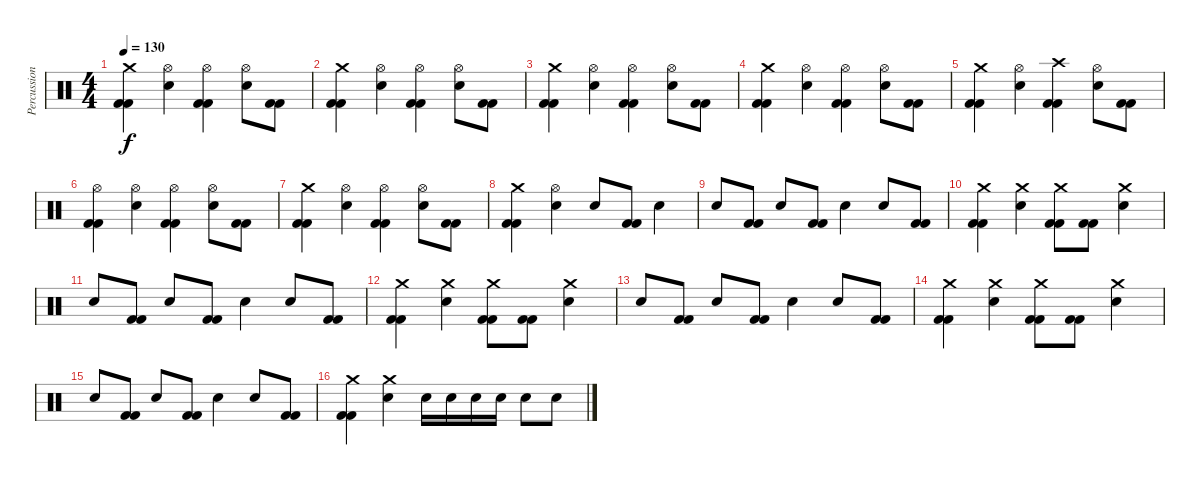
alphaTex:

\track ("Percussion" "Percussion") {instrument percussion}
\staff {score}
\articulation defaults
\ts (4 4)
\tempo 130
\clef neutral
\ks c
("Crash medium (hit)" "Kick (hit) 2" "Kick (hit) 2").4{dy f} ("Hi-Hat (open)" "Snare (hit) 2").4 ("Hi-Hat (open)" "Kick (hit) 2" "Kick (hit) 2").4 ("Hi-Hat (open)" "Snare (hit) 2").8 ("Kick (hit) 2" "Kick (hit) 2").8 |
("Crash medium (hit)" "Kick (hit) 2" "Kick (hit) 2").4 ("Hi-Hat (open)" "Snare (hit) 2").4 ("Hi-Hat (open)" "Kick (hit) 2" "Kick (hit) 2").4 ("Hi-Hat (open)" "Snare (hit) 2").8 ("Kick (hit) 2" "Kick (hit) 2").8 |
("Crash medium (hit)" "Kick (hit) 2" "Kick (hit) 2").4 ("Hi-Hat (open)" "Snare (hit) 2").4 ("Hi-Hat (open)" "Kick (hit) 2" "Kick (hit) 2").4 ("Hi-Hat (open)" "Snare (hit) 2").8 ("Kick (hit) 2" "Kick (hit) 2").8 |
("Crash medium (hit)" "Kick (hit) 2" "Kick (hit) 2").4 ("Hi-Hat (open)" "Snare (hit) 2").4 ("Hi-Hat (open)" "Kick (hit) 2" "Kick (hit) 2").4 ("Hi-Hat (open)" "Snare (hit) 2").8 ("Kick (hit) 2" "Kick (hit) 2").8 |
("Crash medium (hit)" "Kick (hit) 2" "Kick (hit) 2").4 ("Hi-Hat (open)" "Snare (hit) 2").4 ("Crash high (hit)" "Kick (hit) 2" "Kick (hit) 2").4 ("Hi-Hat (open)" "Snare (hit) 2").8 ("Kick (hit) 2" "Kick (hit) 2").8 |
("Hi-Hat (open)" "Kick (hit) 2" "Kick (hit) 2").4 ("Hi-Hat (open)" "Snare (hit) 2").4 ("Hi-Hat (open)" "Kick (hit) 2" "Kick (hit) 2").4 ("Hi-Hat (open)" "Snare (hit) 2").8 ("Kick (hit) 2" "Kick (hit) 2").8 |
("Crash medium (hit)" "Kick (hit) 2" "Kick (hit) 2").4 ("Hi-Hat (open)" "Snare (hit) 2").4 ("Hi-Hat (open)" "Kick (hit) 2" "Kick (hit) 2").4 ("Hi-Hat (open)" "Snare (hit) 2").8 ("Kick (hit) 2" "Kick (hit) 2").8 |
("Crash medium (hit)" "Kick (hit) 2" "Kick (hit) 2").4 ("Hi-Hat (open)" "Snare (hit) 2").4 "Snare (hit) 2".8 ("Kick (hit) 2" "Kick (hit) 2").8 "Snare (hit) 2".4 |
"Snare (hit) 2".8 ("Kick (hit) 2" "Kick (hit) 2").8 "Snare (hit) 2".8 ("Kick (hit) 2" "Kick (hit) 2").8 "Snare (hit) 2".4 "Snare (hit) 2".8 ("Kick (hit) 2" "Kick (hit) 2").8 |
("Crash medium (hit)" "Kick (hit) 2" "Kick (hit) 2").4 ("Crash medium (hit)" "Snare (hit) 2").4 ("Crash medium (hit)" "Kick (hit) 2" "Kick (hit) 2").8 ("Kick (hit) 2" "Kick (hit) 2").8 ("Crash medium (hit)" "Snare (hit) 2").4 |
"Snare (hit) 2".8 ("Kick (hit) 2" "Kick (hit) 2").8 "Snare (hit) 2".8 ("Kick (hit) 2" "Kick (hit) 2").8 "Snare (hit) 2".4 "Snare (hit) 2".8 ("Kick (hit) 2" "Kick (hit) 2").8 |
("Crash medium (hit)" "Kick (hit) 2" "Kick (hit) 2").4 ("Crash medium (hit)" "Snare (hit) 2").4 ("Crash medium (hit)" "Kick (hit) 2" "Kick (hit) 2").8 ("Kick (hit) 2" "Kick (hit) 2").8 ("Crash medium (hit)" "Snare (hit) 2").4 |
"Snare (hit) 2".8 ("Kick (hit) 2" "Kick (hit) 2").8 "Snare (hit) 2".8 ("Kick (hit) 2" "Kick (hit) 2").8 "Snare (hit) 2".4 "Snare (hit) 2".8 ("Kick (hit) 2" "Kick (hit) 2").8 |
("Crash medium (hit)" "Kick (hit) 2" "Kick (hit) 2").4 ("Crash medium (hit)" "Snare (hit) 2").4 ("Crash medium (hit)" "Kick (hit) 2" "Kick (hit) 2").8 ("Kick (hit) 2" "Kick (hit) 2").8 ("Crash medium (hit)" "Snare (hit) 2").4 |
"Snare (hit) 2".8 ("Kick (hit) 2" "Kick (hit) 2").8 "Snare (hit) 2".8 ("Kick (hit) 2" "Kick (hit) 2").8 "Snare (hit) 2".4 "Snare (hit) 2".8 ("Kick (hit) 2" "Kick (hit) 2").8 |
("Crash medium (hit)" "Kick (hit) 2" "Kick (hit) 2").4 ("Crash medium (hit)" "Snare (hit) 2").4 "Snare (hit) 2".16 "Snare (hit) 2".16 "Snare (hit) 2".16 "Snare (hit) 2".16 "Snare (hit) 2".8 "Snare (hit) 2".8
